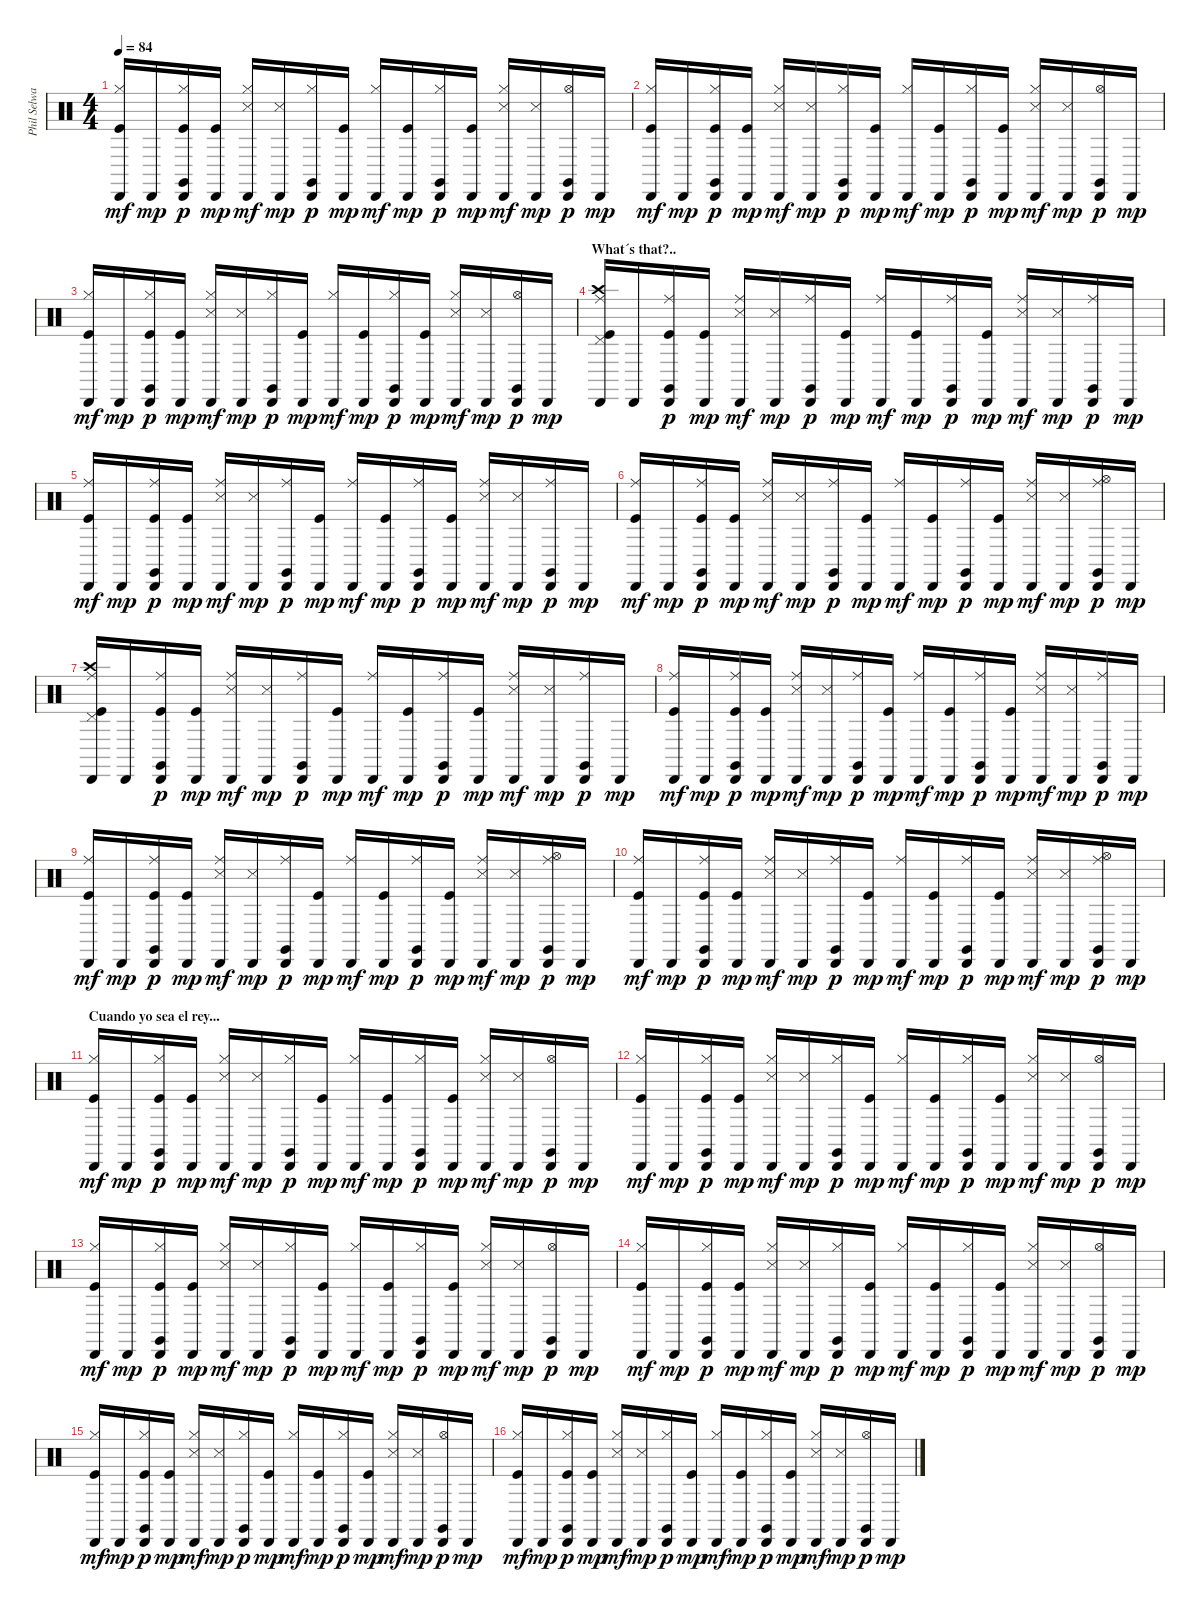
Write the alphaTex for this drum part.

\track ("Phil Selway" "Phil Selwa") {instrument percussion}
\staff {score}
\articulation defaults
\ts (4 4)
\tempo 84
\clef neutral
\ks c
("Hi-Hat (closed)" "Cabasa (hit)" "Kick (hit)").16{dy mf} "Cabasa (hit)".16{dy mp} ("Hi-Hat (closed)" "Cabasa (hit)" "Claves (hit)" "Kick (hit)").16{dy p} ("Cabasa (hit)" "Kick (hit)").16{dy mp} ("Hi-Hat (closed)" "Cabasa (hit)" "Snare (side stick) 3").16{dy mf} ("Cabasa (hit)" "Snare (side stick) 3").16{dy mp} ("Hi-Hat (closed)" "Cabasa (hit)" "Claves (hit)").16{dy p} ("Cabasa (hit)" "Kick (hit)").16{dy mp} ("Hi-Hat (closed)" "Cabasa (hit)").16{dy mf} ("Cabasa (hit)" "Kick (hit)").16{dy mp} ("Hi-Hat (closed)" "Cabasa (hit)" "Claves (hit)").16{dy p} ("Cabasa (hit)" "Kick (hit)").16{dy mp} ("Hi-Hat (closed)" "Cabasa (hit)" "Snare (side stick) 3").16{dy mf} ("Cabasa (hit)" "Snare (side stick) 3").16{dy mp} ("Hi-Hat (open)" "Cabasa (hit)" "Claves (hit)").16{dy p} "Cabasa (hit)".16{dy mp} |
("Hi-Hat (closed)" "Cabasa (hit)" "Kick (hit)").16{dy mf} "Cabasa (hit)".16{dy mp} ("Hi-Hat (closed)" "Cabasa (hit)" "Claves (hit)" "Kick (hit)").16{dy p} ("Cabasa (hit)" "Kick (hit)").16{dy mp} ("Hi-Hat (closed)" "Cabasa (hit)" "Snare (side stick) 3").16{dy mf} ("Cabasa (hit)" "Snare (side stick) 3").16{dy mp} ("Hi-Hat (closed)" "Cabasa (hit)" "Claves (hit)").16{dy p} ("Cabasa (hit)" "Kick (hit)").16{dy mp} ("Hi-Hat (closed)" "Cabasa (hit)").16{dy mf} ("Cabasa (hit)" "Kick (hit)").16{dy mp} ("Hi-Hat (closed)" "Cabasa (hit)" "Claves (hit)").16{dy p} ("Cabasa (hit)" "Kick (hit)").16{dy mp} ("Hi-Hat (closed)" "Cabasa (hit)" "Snare (side stick) 3").16{dy mf} ("Cabasa (hit)" "Snare (side stick) 3").16{dy mp} ("Hi-Hat (open)" "Cabasa (hit)" "Claves (hit)").16{dy p} "Cabasa (hit)".16{dy mp} |
("Hi-Hat (closed)" "Cabasa (hit)" "Kick (hit)").16{dy mf} "Cabasa (hit)".16{dy mp} ("Hi-Hat (closed)" "Cabasa (hit)" "Claves (hit)" "Kick (hit)").16{dy p} ("Cabasa (hit)" "Kick (hit)").16{dy mp} ("Hi-Hat (closed)" "Cabasa (hit)" "Snare (side stick) 3").16{dy mf} ("Cabasa (hit)" "Snare (side stick) 3").16{dy mp} ("Hi-Hat (closed)" "Cabasa (hit)" "Claves (hit)").16{dy p} ("Cabasa (hit)" "Kick (hit)").16{dy mp} ("Hi-Hat (closed)" "Cabasa (hit)").16{dy mf} ("Cabasa (hit)" "Kick (hit)").16{dy mp} ("Hi-Hat (closed)" "Cabasa (hit)" "Claves (hit)").16{dy p} ("Cabasa (hit)" "Kick (hit)").16{dy mp} ("Hi-Hat (closed)" "Cabasa (hit)" "Snare (side stick) 3").16{dy mf} ("Cabasa (hit)" "Snare (side stick) 3").16{dy mp} ("Hi-Hat (open)" "Cabasa (hit)" "Claves (hit)").16{dy p} "Cabasa (hit)".16{dy mp} |
\section ("" "What´s that?..")
("Ride (middle)" "Cabasa (hit)" "Crash high (hit)" "Pedal Hi-Hat (hit)" "Kick (hit)").16 "Cabasa (hit)".16 ("Ride (middle)" "Cabasa (hit)" "Claves (hit)" "Kick (hit)").16{dy p} ("Cabasa (hit)" "Kick (hit)").16{dy mp} ("Ride (middle)" "Cabasa (hit)" "Snare (side stick) 3").16{dy mf} ("Cabasa (hit)" "Snare (side stick) 3").16{dy mp} ("Ride (middle)" "Cabasa (hit)" "Claves (hit)").16{dy p} ("Cabasa (hit)" "Kick (hit)").16{dy mp} ("Ride (middle)" "Cabasa (hit)").16{dy mf} ("Cabasa (hit)" "Kick (hit)").16{dy mp} ("Ride (middle)" "Cabasa (hit)" "Claves (hit)").16{dy p} ("Cabasa (hit)" "Kick (hit)").16{dy mp} ("Ride (middle)" "Cabasa (hit)" "Snare (side stick) 3").16{dy mf} ("Cabasa (hit)" "Snare (side stick) 3").16{dy mp} ("Ride (middle)" "Cabasa (hit)" "Claves (hit)").16{dy p} "Cabasa (hit)".16{dy mp} |
("Ride (middle)" "Cabasa (hit)" "Kick (hit)").16{dy mf} "Cabasa (hit)".16{dy mp} ("Ride (middle)" "Cabasa (hit)" "Claves (hit)" "Kick (hit)").16{dy p} ("Cabasa (hit)" "Kick (hit)").16{dy mp} ("Ride (middle)" "Cabasa (hit)" "Snare (side stick) 3").16{dy mf} ("Cabasa (hit)" "Snare (side stick) 3").16{dy mp} ("Ride (middle)" "Cabasa (hit)" "Claves (hit)").16{dy p} ("Cabasa (hit)" "Kick (hit)").16{dy mp} ("Ride (middle)" "Cabasa (hit)").16{dy mf} ("Cabasa (hit)" "Kick (hit)").16{dy mp} ("Ride (middle)" "Cabasa (hit)" "Claves (hit)").16{dy p} ("Cabasa (hit)" "Kick (hit)").16{dy mp} ("Ride (middle)" "Cabasa (hit)" "Snare (side stick) 3").16{dy mf} ("Cabasa (hit)" "Snare (side stick) 3").16{dy mp} ("Ride (middle)" "Cabasa (hit)" "Claves (hit)").16{dy p} "Cabasa (hit)".16{dy mp} |
("Ride (middle)" "Cabasa (hit)" "Kick (hit)").16{dy mf} "Cabasa (hit)".16{dy mp} ("Ride (middle)" "Cabasa (hit)" "Claves (hit)" "Kick (hit)").16{dy p} ("Cabasa (hit)" "Kick (hit)").16{dy mp} ("Ride (middle)" "Cabasa (hit)" "Snare (side stick) 3").16{dy mf} ("Cabasa (hit)" "Snare (side stick) 3").16{dy mp} ("Ride (middle)" "Cabasa (hit)" "Claves (hit)").16{dy p} ("Cabasa (hit)" "Kick (hit)").16{dy mp} ("Ride (middle)" "Cabasa (hit)").16{dy mf} ("Cabasa (hit)" "Kick (hit)").16{dy mp} ("Ride (middle)" "Cabasa (hit)" "Claves (hit)").16{dy p} ("Cabasa (hit)" "Kick (hit)").16{dy mp} ("Ride (middle)" "Cabasa (hit)" "Snare (side stick) 3").16{dy mf} ("Cabasa (hit)" "Snare (side stick) 3").16{dy mp} ("Ride (middle)" "Cabasa (hit)" "Claves (hit)" "Hi-Hat (open)").16{dy p} "Cabasa (hit)".16{dy mp} |
("Ride (middle)" "Cabasa (hit)" "Crash high (hit)" "Pedal Hi-Hat (hit)" "Kick (hit)").16 "Cabasa (hit)".16 ("Ride (middle)" "Cabasa (hit)" "Claves (hit)" "Kick (hit)").16{dy p} ("Cabasa (hit)" "Kick (hit)").16{dy mp} ("Ride (middle)" "Cabasa (hit)" "Snare (side stick) 3").16{dy mf} ("Cabasa (hit)" "Snare (side stick) 3").16{dy mp} ("Ride (middle)" "Cabasa (hit)" "Claves (hit)").16{dy p} ("Cabasa (hit)" "Kick (hit)").16{dy mp} ("Ride (middle)" "Cabasa (hit)").16{dy mf} ("Cabasa (hit)" "Kick (hit)").16{dy mp} ("Ride (middle)" "Cabasa (hit)" "Claves (hit)").16{dy p} ("Cabasa (hit)" "Kick (hit)").16{dy mp} ("Ride (middle)" "Cabasa (hit)" "Snare (side stick) 3").16{dy mf} ("Cabasa (hit)" "Snare (side stick) 3").16{dy mp} ("Ride (middle)" "Cabasa (hit)" "Claves (hit)").16{dy p} "Cabasa (hit)".16{dy mp} |
("Ride (middle)" "Cabasa (hit)" "Kick (hit)").16{dy mf} "Cabasa (hit)".16{dy mp} ("Ride (middle)" "Cabasa (hit)" "Claves (hit)" "Kick (hit)").16{dy p} ("Cabasa (hit)" "Kick (hit)").16{dy mp} ("Ride (middle)" "Cabasa (hit)" "Snare (side stick) 3").16{dy mf} ("Cabasa (hit)" "Snare (side stick) 3").16{dy mp} ("Ride (middle)" "Cabasa (hit)" "Claves (hit)").16{dy p} ("Cabasa (hit)" "Kick (hit)").16{dy mp} ("Ride (middle)" "Cabasa (hit)").16{dy mf} ("Cabasa (hit)" "Kick (hit)").16{dy mp} ("Ride (middle)" "Cabasa (hit)" "Claves (hit)").16{dy p} ("Cabasa (hit)" "Kick (hit)").16{dy mp} ("Ride (middle)" "Cabasa (hit)" "Snare (side stick) 3").16{dy mf} ("Cabasa (hit)" "Snare (side stick) 3").16{dy mp} ("Ride (middle)" "Cabasa (hit)" "Claves (hit)").16{dy p} "Cabasa (hit)".16{dy mp} |
("Ride (middle)" "Cabasa (hit)" "Kick (hit)").16{dy mf} "Cabasa (hit)".16{dy mp} ("Ride (middle)" "Cabasa (hit)" "Claves (hit)" "Kick (hit)").16{dy p} ("Cabasa (hit)" "Kick (hit)").16{dy mp} ("Ride (middle)" "Cabasa (hit)" "Snare (side stick) 3").16{dy mf} ("Cabasa (hit)" "Snare (side stick) 3").16{dy mp} ("Ride (middle)" "Cabasa (hit)" "Claves (hit)").16{dy p} ("Cabasa (hit)" "Kick (hit)").16{dy mp} ("Ride (middle)" "Cabasa (hit)").16{dy mf} ("Cabasa (hit)" "Kick (hit)").16{dy mp} ("Ride (middle)" "Cabasa (hit)" "Claves (hit)").16{dy p} ("Cabasa (hit)" "Kick (hit)").16{dy mp} ("Ride (middle)" "Cabasa (hit)" "Snare (side stick) 3").16{dy mf} ("Cabasa (hit)" "Snare (side stick) 3").16{dy mp} ("Ride (middle)" "Cabasa (hit)" "Claves (hit)" "Hi-Hat (open)").16{dy p} "Cabasa (hit)".16{dy mp} |
("Ride (middle)" "Cabasa (hit)" "Kick (hit)").16{dy mf} "Cabasa (hit)".16{dy mp} ("Ride (middle)" "Cabasa (hit)" "Claves (hit)" "Kick (hit)").16{dy p} ("Cabasa (hit)" "Kick (hit)").16{dy mp} ("Ride (middle)" "Cabasa (hit)" "Snare (side stick) 3").16{dy mf} ("Cabasa (hit)" "Snare (side stick) 3").16{dy mp} ("Ride (middle)" "Cabasa (hit)" "Claves (hit)").16{dy p} ("Cabasa (hit)" "Kick (hit)").16{dy mp} ("Ride (middle)" "Cabasa (hit)").16{dy mf} ("Cabasa (hit)" "Kick (hit)").16{dy mp} ("Ride (middle)" "Cabasa (hit)" "Claves (hit)").16{dy p} ("Cabasa (hit)" "Kick (hit)").16{dy mp} ("Ride (middle)" "Cabasa (hit)" "Snare (side stick) 3").16{dy mf} ("Cabasa (hit)" "Snare (side stick) 3").16{dy mp} ("Ride (middle)" "Cabasa (hit)" "Claves (hit)" "Hi-Hat (open)").16{dy p} "Cabasa (hit)".16{dy mp} |
\section ("" "Cuando yo sea el rey...")
("Hi-Hat (closed)" "Cabasa (hit)" "Kick (hit)").16{dy mf} "Cabasa (hit)".16{dy mp} ("Hi-Hat (closed)" "Cabasa (hit)" "Claves (hit)" "Kick (hit)").16{dy p} ("Cabasa (hit)" "Kick (hit)").16{dy mp} ("Hi-Hat (closed)" "Cabasa (hit)" "Snare (side stick) 3").16{dy mf} ("Cabasa (hit)" "Snare (side stick) 3").16{dy mp} ("Hi-Hat (closed)" "Cabasa (hit)" "Claves (hit)").16{dy p} ("Cabasa (hit)" "Kick (hit)").16{dy mp} ("Hi-Hat (closed)" "Cabasa (hit)").16{dy mf} ("Cabasa (hit)" "Kick (hit)").16{dy mp} ("Hi-Hat (closed)" "Cabasa (hit)" "Claves (hit)").16{dy p} ("Cabasa (hit)" "Kick (hit)").16{dy mp} ("Hi-Hat (closed)" "Cabasa (hit)" "Snare (side stick) 3").16{dy mf} ("Cabasa (hit)" "Snare (side stick) 3").16{dy mp} ("Hi-Hat (open)" "Cabasa (hit)" "Claves (hit)").16{dy p} "Cabasa (hit)".16{dy mp} |
("Hi-Hat (closed)" "Cabasa (hit)" "Kick (hit)").16{dy mf} "Cabasa (hit)".16{dy mp} ("Hi-Hat (closed)" "Cabasa (hit)" "Claves (hit)" "Kick (hit)").16{dy p} ("Cabasa (hit)" "Kick (hit)").16{dy mp} ("Hi-Hat (closed)" "Cabasa (hit)" "Snare (side stick) 3").16{dy mf} ("Cabasa (hit)" "Snare (side stick) 3").16{dy mp} ("Hi-Hat (closed)" "Cabasa (hit)" "Claves (hit)").16{dy p} ("Cabasa (hit)" "Kick (hit)").16{dy mp} ("Hi-Hat (closed)" "Cabasa (hit)").16{dy mf} ("Cabasa (hit)" "Kick (hit)").16{dy mp} ("Hi-Hat (closed)" "Cabasa (hit)" "Claves (hit)").16{dy p} ("Cabasa (hit)" "Kick (hit)").16{dy mp} ("Hi-Hat (closed)" "Cabasa (hit)" "Snare (side stick) 3").16{dy mf} ("Cabasa (hit)" "Snare (side stick) 3").16{dy mp} ("Hi-Hat (open)" "Cabasa (hit)" "Claves (hit)").16{dy p} "Cabasa (hit)".16{dy mp} |
("Hi-Hat (closed)" "Cabasa (hit)" "Kick (hit)").16{dy mf} "Cabasa (hit)".16{dy mp} ("Hi-Hat (closed)" "Cabasa (hit)" "Claves (hit)" "Kick (hit)").16{dy p} ("Cabasa (hit)" "Kick (hit)").16{dy mp} ("Hi-Hat (closed)" "Cabasa (hit)" "Snare (side stick) 3").16{dy mf} ("Cabasa (hit)" "Snare (side stick) 3").16{dy mp} ("Hi-Hat (closed)" "Cabasa (hit)" "Claves (hit)").16{dy p} ("Cabasa (hit)" "Kick (hit)").16{dy mp} ("Hi-Hat (closed)" "Cabasa (hit)").16{dy mf} ("Cabasa (hit)" "Kick (hit)").16{dy mp} ("Hi-Hat (closed)" "Cabasa (hit)" "Claves (hit)").16{dy p} ("Cabasa (hit)" "Kick (hit)").16{dy mp} ("Hi-Hat (closed)" "Cabasa (hit)" "Snare (side stick) 3").16{dy mf} ("Cabasa (hit)" "Snare (side stick) 3").16{dy mp} ("Hi-Hat (open)" "Cabasa (hit)" "Claves (hit)").16{dy p} "Cabasa (hit)".16{dy mp} |
("Hi-Hat (closed)" "Cabasa (hit)" "Kick (hit)").16{dy mf} "Cabasa (hit)".16{dy mp} ("Hi-Hat (closed)" "Cabasa (hit)" "Claves (hit)" "Kick (hit)").16{dy p} ("Cabasa (hit)" "Kick (hit)").16{dy mp} ("Hi-Hat (closed)" "Cabasa (hit)" "Snare (side stick) 3").16{dy mf} ("Cabasa (hit)" "Snare (side stick) 3").16{dy mp} ("Hi-Hat (closed)" "Cabasa (hit)" "Claves (hit)").16{dy p} ("Cabasa (hit)" "Kick (hit)").16{dy mp} ("Hi-Hat (closed)" "Cabasa (hit)").16{dy mf} ("Cabasa (hit)" "Kick (hit)").16{dy mp} ("Hi-Hat (closed)" "Cabasa (hit)" "Claves (hit)").16{dy p} ("Cabasa (hit)" "Kick (hit)").16{dy mp} ("Hi-Hat (closed)" "Cabasa (hit)" "Snare (side stick) 3").16{dy mf} ("Cabasa (hit)" "Snare (side stick) 3").16{dy mp} ("Hi-Hat (open)" "Cabasa (hit)" "Claves (hit)").16{dy p} "Cabasa (hit)".16{dy mp} |
("Hi-Hat (closed)" "Cabasa (hit)" "Kick (hit)").16{dy mf} "Cabasa (hit)".16{dy mp} ("Hi-Hat (closed)" "Cabasa (hit)" "Claves (hit)" "Kick (hit)").16{dy p} ("Cabasa (hit)" "Kick (hit)").16{dy mp} ("Hi-Hat (closed)" "Cabasa (hit)" "Snare (side stick) 3").16{dy mf} ("Cabasa (hit)" "Snare (side stick) 3").16{dy mp} ("Hi-Hat (closed)" "Cabasa (hit)" "Claves (hit)").16{dy p} ("Cabasa (hit)" "Kick (hit)").16{dy mp} ("Hi-Hat (closed)" "Cabasa (hit)").16{dy mf} ("Cabasa (hit)" "Kick (hit)").16{dy mp} ("Hi-Hat (closed)" "Cabasa (hit)" "Claves (hit)").16{dy p} ("Cabasa (hit)" "Kick (hit)").16{dy mp} ("Hi-Hat (closed)" "Cabasa (hit)" "Snare (side stick) 3").16{dy mf} ("Cabasa (hit)" "Snare (side stick) 3").16{dy mp} ("Hi-Hat (open)" "Cabasa (hit)" "Claves (hit)").16{dy p} "Cabasa (hit)".16{dy mp} |
("Hi-Hat (closed)" "Cabasa (hit)" "Kick (hit)").16{dy mf} "Cabasa (hit)".16{dy mp} ("Hi-Hat (closed)" "Cabasa (hit)" "Claves (hit)" "Kick (hit)").16{dy p} ("Cabasa (hit)" "Kick (hit)").16{dy mp} ("Hi-Hat (closed)" "Cabasa (hit)" "Snare (side stick) 3").16{dy mf} ("Cabasa (hit)" "Snare (side stick) 3").16{dy mp} ("Hi-Hat (closed)" "Cabasa (hit)" "Claves (hit)").16{dy p} ("Cabasa (hit)" "Kick (hit)").16{dy mp} ("Hi-Hat (closed)" "Cabasa (hit)").16{dy mf} ("Cabasa (hit)" "Kick (hit)").16{dy mp} ("Hi-Hat (closed)" "Cabasa (hit)" "Claves (hit)").16{dy p} ("Cabasa (hit)" "Kick (hit)").16{dy mp} ("Hi-Hat (closed)" "Cabasa (hit)" "Snare (side stick) 3").16{dy mf} ("Cabasa (hit)" "Snare (side stick) 3").16{dy mp} ("Hi-Hat (open)" "Cabasa (hit)" "Claves (hit)").16{dy p} "Cabasa (hit)".16{dy mp}
